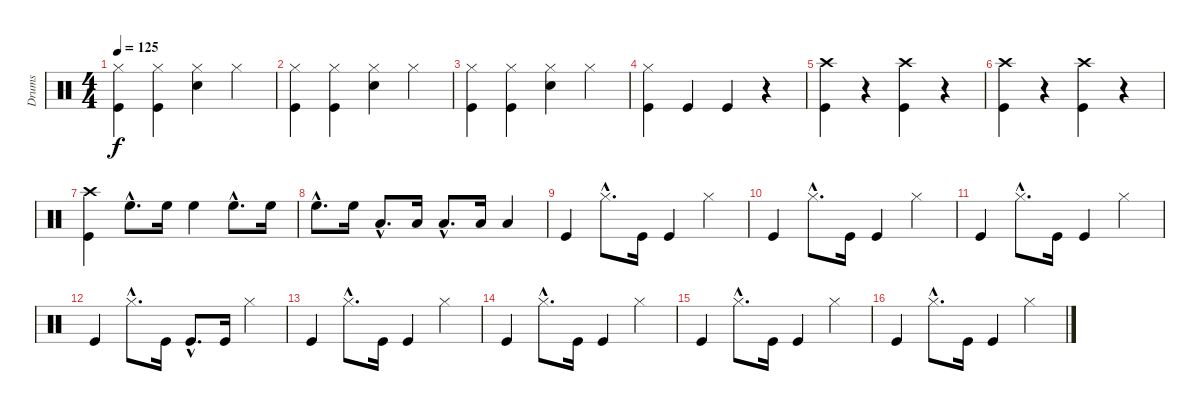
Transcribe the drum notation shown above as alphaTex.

\track ("Drums" "Drums") {instrument percussion}
\staff {score}
\articulation defaults
\ts (4 4)
\tempo 125
\clef neutral
\ks c
("Hi-Hat (closed)" "Kick (hit)").4{dy f} ("Hi-Hat (closed)" "Kick (hit)").4 ("Hi-Hat (closed)" "Snare (hit) 2").4 "Hi-Hat (closed)".4 |
("Hi-Hat (closed)" "Kick (hit)").4 ("Hi-Hat (closed)" "Kick (hit)").4 ("Hi-Hat (closed)" "Snare (hit) 2").4 "Hi-Hat (closed)".4 |
("Hi-Hat (closed)" "Kick (hit)").4 ("Hi-Hat (closed)" "Kick (hit)").4 ("Hi-Hat (closed)" "Snare (hit) 2").4 "Hi-Hat (closed)".4 |
("Hi-Hat (closed)" "Kick (hit)").4 "Kick (hit)".4 "Kick (hit)".4 r.4 |
("Crash high (hit)" "Kick (hit)").4 r.4 ("Crash high (hit)" "Kick (hit)").4 r.4 |
("Crash high (hit)" "Kick (hit)").4 r.4 ("Crash high (hit)" "Kick (hit)").4 r.4 |
("Crash high (hit)" "Kick (hit)").4 "High Floor Tom (hit)"{hac}.8{d} "High Floor Tom (hit)".16 "High Floor Tom (hit)".4 "High Floor Tom (hit)"{hac}.8{d} "High Floor Tom (hit)".16 |
"High Floor Tom (hit)"{hac}.8{d} "High Floor Tom (hit)".16 "Low Floor Tom (hit)"{hac}.8{d} "Low Floor Tom (hit)".16 "Low Floor Tom (hit)"{hac}.8{d} "Low Floor Tom (hit)".16 "Low Floor Tom (hit)".4 |
"Kick (hit)".4 "Hi-Hat (closed)"{hac}.8{d} "Kick (hit)".16 "Kick (hit)".4 "Hi-Hat (closed)".4 |
"Kick (hit)".4 "Hi-Hat (closed)"{hac}.8{d} "Kick (hit)".16 "Kick (hit)".4 "Hi-Hat (closed)".4 |
"Kick (hit)".4 "Hi-Hat (closed)"{hac}.8{d} "Kick (hit)".16 "Kick (hit)".4 "Hi-Hat (closed)".4 |
"Kick (hit)".4 "Hi-Hat (closed)"{hac}.8{d} "Kick (hit)".16 "Kick (hit)"{hac}.8{d} "Kick (hit)".16 "Hi-Hat (closed)".4 |
"Kick (hit)".4 "Hi-Hat (closed)"{hac}.8{d} "Kick (hit)".16 "Kick (hit)".4 "Hi-Hat (closed)".4 |
"Kick (hit)".4 "Hi-Hat (closed)"{hac}.8{d} "Kick (hit)".16 "Kick (hit)".4 "Hi-Hat (closed)".4 |
"Kick (hit)".4 "Hi-Hat (closed)"{hac}.8{d} "Kick (hit)".16 "Kick (hit)".4 "Hi-Hat (closed)".4 |
"Kick (hit)".4 "Hi-Hat (closed)"{hac}.8{d} "Kick (hit)".16 "Kick (hit)".4 "Hi-Hat (closed)".4
